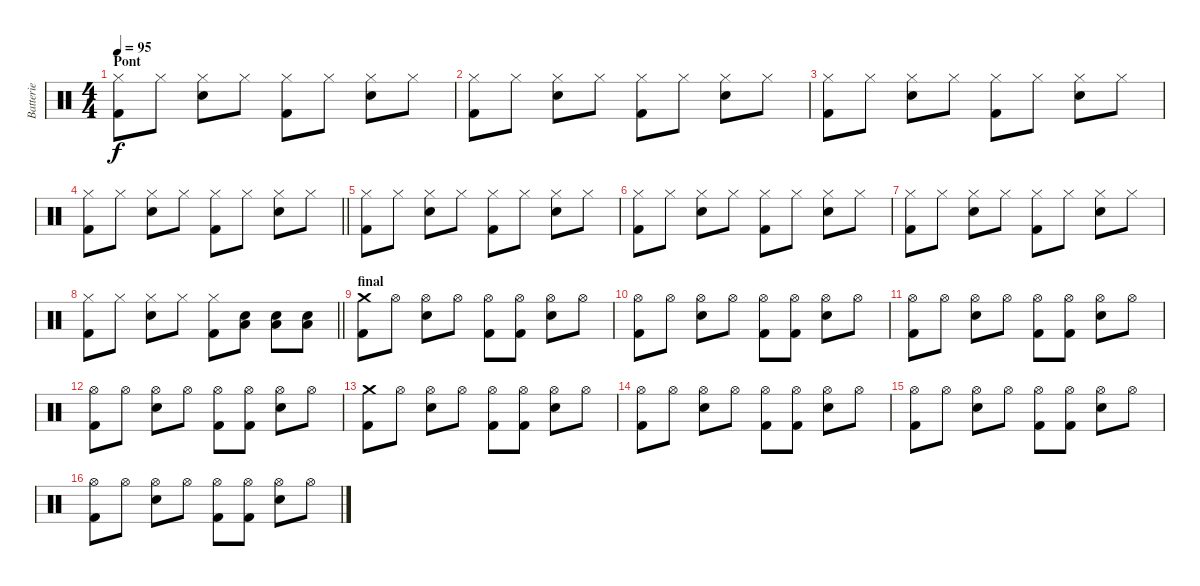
\track ("Batterie" "Batterie") {instrument percussion}
\staff {score}
\articulation defaults
\ts (4 4)
\section ("" "Pont")
\tempo 95
\clef neutral
\ks c
("Hi-Hat (closed)" "Kick (hit) 2").8{dy f} "Hi-Hat (closed)".8 ("Hi-Hat (closed)" "Electric Snare (hit)").8 "Hi-Hat (closed)".8 ("Hi-Hat (closed)" "Kick (hit) 2").8 "Hi-Hat (closed)".8 ("Hi-Hat (closed)" "Electric Snare (hit)").8 "Hi-Hat (closed)".8 |
("Hi-Hat (closed)" "Kick (hit) 2").8 "Hi-Hat (closed)".8 ("Hi-Hat (closed)" "Electric Snare (hit)").8 "Hi-Hat (closed)".8 ("Hi-Hat (closed)" "Kick (hit) 2").8 "Hi-Hat (closed)".8 ("Hi-Hat (closed)" "Electric Snare (hit)").8 "Hi-Hat (closed)".8 |
("Hi-Hat (closed)" "Kick (hit) 2").8 "Hi-Hat (closed)".8 ("Hi-Hat (closed)" "Electric Snare (hit)").8 "Hi-Hat (closed)".8 ("Hi-Hat (closed)" "Kick (hit) 2").8 "Hi-Hat (closed)".8 ("Hi-Hat (closed)" "Electric Snare (hit)").8 "Hi-Hat (closed)".8 |
\barLineRight lightlight
("Hi-Hat (closed)" "Kick (hit) 2").8 "Hi-Hat (closed)".8 ("Hi-Hat (closed)" "Electric Snare (hit)").8 "Hi-Hat (closed)".8 ("Hi-Hat (closed)" "Kick (hit) 2").8 "Hi-Hat (closed)".8 ("Hi-Hat (closed)" "Electric Snare (hit)").8 "Hi-Hat (closed)".8 |
("Hi-Hat (closed)" "Kick (hit) 2").8 "Hi-Hat (closed)".8 ("Hi-Hat (closed)" "Electric Snare (hit)").8 "Hi-Hat (closed)".8 ("Hi-Hat (closed)" "Kick (hit) 2").8 "Hi-Hat (closed)".8 ("Hi-Hat (closed)" "Electric Snare (hit)").8 "Hi-Hat (closed)".8 |
("Hi-Hat (closed)" "Kick (hit) 2").8 "Hi-Hat (closed)".8 ("Hi-Hat (closed)" "Electric Snare (hit)").8 "Hi-Hat (closed)".8 ("Hi-Hat (closed)" "Kick (hit) 2").8 "Hi-Hat (closed)".8 ("Hi-Hat (closed)" "Electric Snare (hit)").8 "Hi-Hat (closed)".8 |
("Hi-Hat (closed)" "Kick (hit) 2").8 "Hi-Hat (closed)".8 ("Hi-Hat (closed)" "Electric Snare (hit)").8 "Hi-Hat (closed)".8 ("Hi-Hat (closed)" "Kick (hit) 2").8 "Hi-Hat (closed)".8 ("Hi-Hat (closed)" "Electric Snare (hit)").8 "Hi-Hat (closed)".8 |
\barLineRight lightlight
("Hi-Hat (closed)" "Kick (hit) 2").8 "Hi-Hat (closed)".8 ("Hi-Hat (closed)" "Electric Snare (hit)").8 "Hi-Hat (closed)".8 ("Hi-Hat (closed)" "Kick (hit) 2").8 ("Low Tom (hit)" "Electric Snare (hit)").8 ("Low Tom (hit)" "Electric Snare (hit)").8 ("Low Tom (hit)" "Electric Snare (hit)").8 |
\section ("" "final")
("Crash medium (hit)" "Kick (hit) 2").8 "Hi-Hat (open)".8 ("Hi-Hat (open)" "Electric Snare (hit)").8 "Hi-Hat (open)".8 ("Hi-Hat (open)" "Kick (hit) 2").8 ("Hi-Hat (open)" "Kick (hit) 2").8 ("Hi-Hat (open)" "Electric Snare (hit)").8 "Hi-Hat (open)".8 |
("Hi-Hat (open)" "Kick (hit) 2").8 "Hi-Hat (open)".8 ("Hi-Hat (open)" "Electric Snare (hit)").8 "Hi-Hat (open)".8 ("Hi-Hat (open)" "Kick (hit) 2").8 ("Hi-Hat (open)" "Kick (hit) 2").8 ("Hi-Hat (open)" "Electric Snare (hit)").8 "Hi-Hat (open)".8 |
("Hi-Hat (open)" "Kick (hit) 2").8 "Hi-Hat (open)".8 ("Hi-Hat (open)" "Electric Snare (hit)").8 "Hi-Hat (open)".8 ("Hi-Hat (open)" "Kick (hit) 2").8 ("Hi-Hat (open)" "Kick (hit) 2").8 ("Hi-Hat (open)" "Electric Snare (hit)").8 "Hi-Hat (open)".8 |
("Hi-Hat (open)" "Kick (hit) 2").8 "Hi-Hat (open)".8 ("Hi-Hat (open)" "Electric Snare (hit)").8 "Hi-Hat (open)".8 ("Hi-Hat (open)" "Kick (hit) 2").8 ("Hi-Hat (open)" "Kick (hit) 2").8 ("Hi-Hat (open)" "Electric Snare (hit)").8 "Hi-Hat (open)".8 |
("Crash medium (hit)" "Kick (hit) 2").8 "Hi-Hat (open)".8 ("Hi-Hat (open)" "Electric Snare (hit)").8 "Hi-Hat (open)".8 ("Hi-Hat (open)" "Kick (hit) 2").8 ("Hi-Hat (open)" "Kick (hit) 2").8 ("Hi-Hat (open)" "Electric Snare (hit)").8 "Hi-Hat (open)".8 |
("Hi-Hat (open)" "Kick (hit) 2").8 "Hi-Hat (open)".8 ("Hi-Hat (open)" "Electric Snare (hit)").8 "Hi-Hat (open)".8 ("Hi-Hat (open)" "Kick (hit) 2").8 ("Hi-Hat (open)" "Kick (hit) 2").8 ("Hi-Hat (open)" "Electric Snare (hit)").8 "Hi-Hat (open)".8 |
("Hi-Hat (open)" "Kick (hit) 2").8 "Hi-Hat (open)".8 ("Hi-Hat (open)" "Electric Snare (hit)").8 "Hi-Hat (open)".8 ("Hi-Hat (open)" "Kick (hit) 2").8 ("Hi-Hat (open)" "Kick (hit) 2").8 ("Hi-Hat (open)" "Electric Snare (hit)").8 "Hi-Hat (open)".8 |
("Hi-Hat (open)" "Kick (hit) 2").8 "Hi-Hat (open)".8 ("Hi-Hat (open)" "Electric Snare (hit)").8 "Hi-Hat (open)".8 ("Hi-Hat (open)" "Kick (hit) 2").8 ("Hi-Hat (open)" "Kick (hit) 2").8 ("Hi-Hat (open)" "Electric Snare (hit)").8 "Hi-Hat (open)".8
